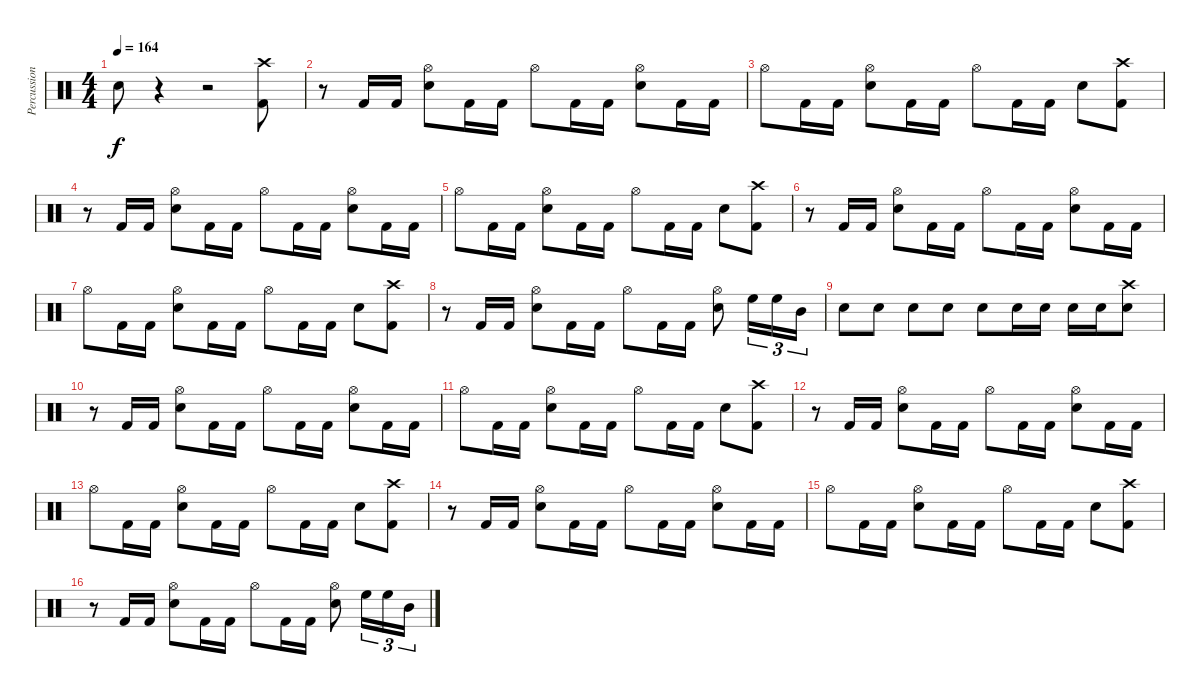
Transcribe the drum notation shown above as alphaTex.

\track ("Percussion" "Percussion") {instrument percussion}
\staff {score}
\articulation defaults
\ts (4 4)
\tempo 164
\clef neutral
\ks c "Snare (hit) 2".8{dy f}
r.4 r.2 ("Crash high (hit)" "Kick (hit) 2").8 |
r.8 "Kick (hit) 2".16 "Kick (hit) 2".16 ("Hi-Hat (open)" "Snare (hit) 2").8 "Kick (hit) 2".16 "Kick (hit) 2".16 "Hi-Hat (open)".8 "Kick (hit) 2".16 "Kick (hit) 2".16 ("Hi-Hat (open)" "Snare (hit) 2").8 "Kick (hit) 2".16 "Kick (hit) 2".16 |
"Hi-Hat (open)".8 "Kick (hit) 2".16 "Kick (hit) 2".16 ("Hi-Hat (open)" "Snare (hit) 2").8 "Kick (hit) 2".16 "Kick (hit) 2".16 "Hi-Hat (open)".8 "Kick (hit) 2".16 "Kick (hit) 2".16 "Snare (hit) 2".8 ("Crash high (hit)" "Kick (hit) 2").8 |
r.8 "Kick (hit) 2".16 "Kick (hit) 2".16 ("Hi-Hat (open)" "Snare (hit) 2").8 "Kick (hit) 2".16 "Kick (hit) 2".16 "Hi-Hat (open)".8 "Kick (hit) 2".16 "Kick (hit) 2".16 ("Hi-Hat (open)" "Snare (hit) 2").8 "Kick (hit) 2".16 "Kick (hit) 2".16 |
"Hi-Hat (open)".8 "Kick (hit) 2".16 "Kick (hit) 2".16 ("Hi-Hat (open)" "Snare (hit) 2").8 "Kick (hit) 2".16 "Kick (hit) 2".16 "Hi-Hat (open)".8 "Kick (hit) 2".16 "Kick (hit) 2".16 "Snare (hit) 2".8 ("Crash high (hit)" "Kick (hit) 2").8 |
r.8 "Kick (hit) 2".16 "Kick (hit) 2".16 ("Hi-Hat (open)" "Snare (hit) 2").8 "Kick (hit) 2".16 "Kick (hit) 2".16 "Hi-Hat (open)".8 "Kick (hit) 2".16 "Kick (hit) 2".16 ("Hi-Hat (open)" "Snare (hit) 2").8 "Kick (hit) 2".16 "Kick (hit) 2".16 |
"Hi-Hat (open)".8 "Kick (hit) 2".16 "Kick (hit) 2".16 ("Hi-Hat (open)" "Snare (hit) 2").8 "Kick (hit) 2".16 "Kick (hit) 2".16 "Hi-Hat (open)".8 "Kick (hit) 2".16 "Kick (hit) 2".16 "Snare (hit) 2".8 ("Crash high (hit)" "Kick (hit) 2").8 |
r.8 "Kick (hit) 2".16 "Kick (hit) 2".16 ("Hi-Hat (open)" "Snare (hit) 2").8 "Kick (hit) 2".16 "Kick (hit) 2".16 "Hi-Hat (open)".8 "Kick (hit) 2".16 "Kick (hit) 2".16 ("Hi-Hat (open)" "Snare (hit) 2").8 "High Floor Tom (hit)".16{tu (3 2)} "High Floor Tom (hit)".16{tu (3 2)} "Mid Tom (hit)".16{tu (3 2)} |
"Snare (hit) 2".8 "Snare (hit) 2".8 "Snare (hit) 2".8 "Snare (hit) 2".8 "Snare (hit) 2".8 "Snare (hit) 2".16 "Snare (hit) 2".16 "Snare (hit) 2".16 "Snare (hit) 2".16 ("Crash high (hit)" "Snare (hit) 2").8 |
r.8 "Kick (hit) 2".16 "Kick (hit) 2".16 ("Hi-Hat (open)" "Snare (hit) 2").8 "Kick (hit) 2".16 "Kick (hit) 2".16 "Hi-Hat (open)".8 "Kick (hit) 2".16 "Kick (hit) 2".16 ("Hi-Hat (open)" "Snare (hit) 2").8 "Kick (hit) 2".16 "Kick (hit) 2".16 |
"Hi-Hat (open)".8 "Kick (hit) 2".16 "Kick (hit) 2".16 ("Hi-Hat (open)" "Snare (hit) 2").8 "Kick (hit) 2".16 "Kick (hit) 2".16 "Hi-Hat (open)".8 "Kick (hit) 2".16 "Kick (hit) 2".16 "Snare (hit) 2".8 ("Crash high (hit)" "Kick (hit) 2").8 |
r.8 "Kick (hit) 2".16 "Kick (hit) 2".16 ("Hi-Hat (open)" "Snare (hit) 2").8 "Kick (hit) 2".16 "Kick (hit) 2".16 "Hi-Hat (open)".8 "Kick (hit) 2".16 "Kick (hit) 2".16 ("Hi-Hat (open)" "Snare (hit) 2").8 "Kick (hit) 2".16 "Kick (hit) 2".16 |
"Hi-Hat (open)".8 "Kick (hit) 2".16 "Kick (hit) 2".16 ("Hi-Hat (open)" "Snare (hit) 2").8 "Kick (hit) 2".16 "Kick (hit) 2".16 "Hi-Hat (open)".8 "Kick (hit) 2".16 "Kick (hit) 2".16 "Snare (hit) 2".8 ("Crash high (hit)" "Kick (hit) 2").8 |
r.8 "Kick (hit) 2".16 "Kick (hit) 2".16 ("Hi-Hat (open)" "Snare (hit) 2").8 "Kick (hit) 2".16 "Kick (hit) 2".16 "Hi-Hat (open)".8 "Kick (hit) 2".16 "Kick (hit) 2".16 ("Hi-Hat (open)" "Snare (hit) 2").8 "Kick (hit) 2".16 "Kick (hit) 2".16 |
"Hi-Hat (open)".8 "Kick (hit) 2".16 "Kick (hit) 2".16 ("Hi-Hat (open)" "Snare (hit) 2").8 "Kick (hit) 2".16 "Kick (hit) 2".16 "Hi-Hat (open)".8 "Kick (hit) 2".16 "Kick (hit) 2".16 "Snare (hit) 2".8 ("Crash high (hit)" "Kick (hit) 2").8 |
r.8 "Kick (hit) 2".16 "Kick (hit) 2".16 ("Hi-Hat (open)" "Snare (hit) 2").8 "Kick (hit) 2".16 "Kick (hit) 2".16 "Hi-Hat (open)".8 "Kick (hit) 2".16 "Kick (hit) 2".16 ("Hi-Hat (open)" "Snare (hit) 2").8 "High Floor Tom (hit)".16{tu (3 2)} "High Floor Tom (hit)".16{tu (3 2)} "Mid Tom (hit)".16{tu (3 2)}
